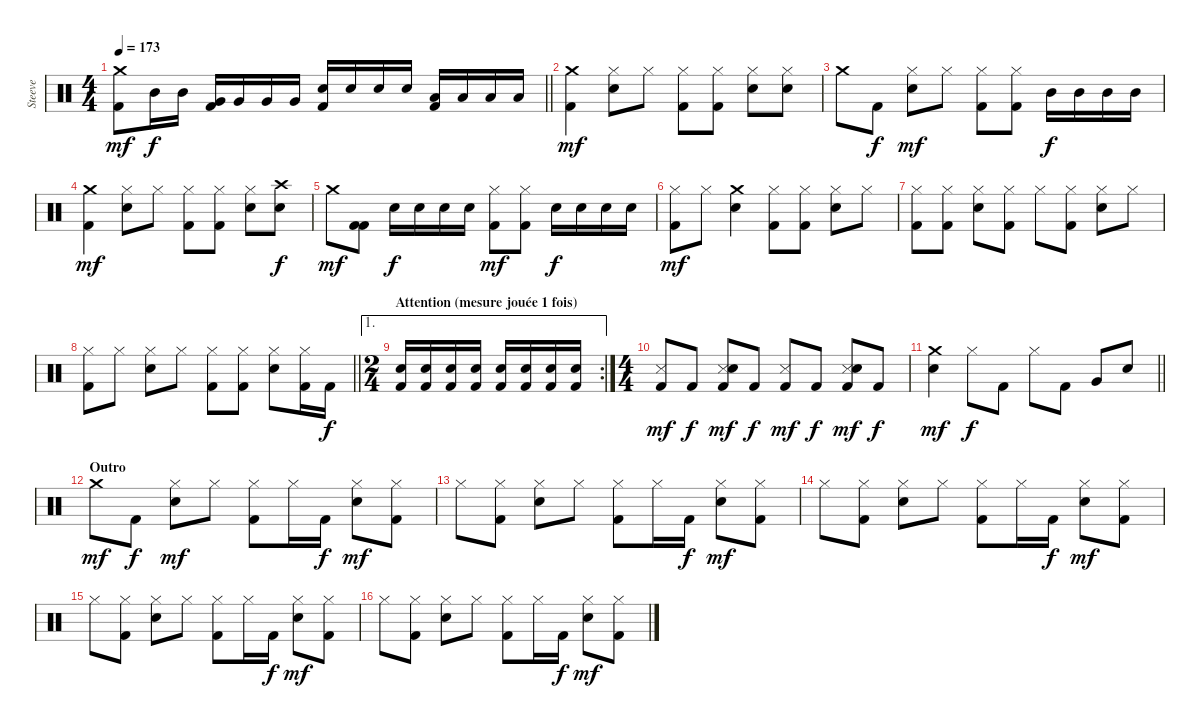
\track ("Steeve" "Steeve") {instrument percussion}
\staff {score}
\articulation defaults
\ts (4 4)
\tempo 173
\clef neutral
\barLineRight lightlight
\ks c
("Crash medium (hit)" "Kick (hit) 2").8{dy mf} "Mid Tom (hit)".16{dy f} "Mid Tom (hit)".16 ("Very Low Tom (hit)" "Kick (hit) 2").16 "Very Low Tom (hit)".16 "Very Low Tom (hit)".16 "Very Low Tom (hit)".16 ("Electric Snare (hit)" "Kick (hit) 2").16 "Electric Snare (hit)".16 "Electric Snare (hit)".16 "Electric Snare (hit)".16 ("Low Floor Tom (hit)" "Kick (hit) 2").16 "Low Floor Tom (hit)".16 "Low Floor Tom (hit)".16 "Low Floor Tom (hit)".16 |
\section ("" "")
("Crash medium (hit)" "Kick (hit) 2").4{dy mf} ("Hi-Hat (closed)" "Electric Snare (hit)").8 "Hi-Hat (closed)".8 ("Hi-Hat (closed)" "Kick (hit) 2").8 ("Hi-Hat (closed)" "Kick (hit) 2").8 ("Hi-Hat (closed)" "Electric Snare (hit)").8 ("Hi-Hat (closed)" "Electric Snare (hit)").8 |
"Crash medium (hit)".8 "Kick (hit) 2".8{dy f} ("Hi-Hat (closed)" "Electric Snare (hit)").8{dy mf} "Hi-Hat (closed)".8 ("Hi-Hat (closed)" "Kick (hit) 2").8 ("Hi-Hat (closed)" "Kick (hit) 2").8 "Mid Tom (hit)".16{dy f} "Mid Tom (hit)".16 "Mid Tom (hit)".16 "Mid Tom (hit)".16 |
("Crash medium (hit)" "Kick (hit) 2").4{dy mf} ("Hi-Hat (closed)" "Electric Snare (hit)").8 "Hi-Hat (closed)".8 ("Hi-Hat (closed)" "Kick (hit) 2").8 ("Hi-Hat (closed)" "Kick (hit) 2").8 ("Hi-Hat (closed)" "Electric Snare (hit)").8 ("Crash high (hit)" "Electric Snare (hit)").8{dy f} |
"Crash medium (hit)".8{dy mf} ("Kick (hit) 2" "Kick (hit) 2").8 "Electric Snare (hit)".16{dy f} "Electric Snare (hit)".16 "Electric Snare (hit)".16 "Electric Snare (hit)".16 ("Hi-Hat (closed)" "Kick (hit) 2").8{dy mf} ("Hi-Hat (closed)" "Kick (hit) 2").8 "Electric Snare (hit)".16{dy f} "Electric Snare (hit)".16 "Electric Snare (hit)".16 "Electric Snare (hit)".16 |
("Hi-Hat (closed)" "Kick (hit) 2").8{dy mf} "Hi-Hat (closed)".8 ("Crash medium (hit)" "Electric Snare (hit)").4 ("Hi-Hat (closed)" "Kick (hit) 2").8 ("Hi-Hat (closed)" "Kick (hit) 2").8 ("Hi-Hat (closed)" "Electric Snare (hit)").8 "Hi-Hat (closed)".8 |
("Hi-Hat (closed)" "Kick (hit) 2").8 ("Hi-Hat (closed)" "Kick (hit) 2").8 ("Hi-Hat (closed)" "Electric Snare (hit)").8 ("Hi-Hat (closed)" "Kick (hit) 2").8 "Hi-Hat (closed)".8 ("Hi-Hat (closed)" "Kick (hit) 2").8 ("Hi-Hat (closed)" "Electric Snare (hit)").8 "Hi-Hat (closed)".8 |
\barLineRight lightlight
("Hi-Hat (closed)" "Kick (hit) 2").8 "Hi-Hat (closed)".8 ("Hi-Hat (closed)" "Electric Snare (hit)").8 "Hi-Hat (closed)".8 ("Hi-Hat (closed)" "Kick (hit) 2").8 ("Hi-Hat (closed)" "Kick (hit) 2").8 ("Hi-Hat (closed)" "Electric Snare (hit)").8 ("Hi-Hat (closed)" "Kick (hit) 2").16 "Kick (hit) 2".16{dy f} |
\ae 1
\rc 2
\ts (2 4)
\section ("" "Attention (mesure jouée 1 fois)")
("Electric Snare (hit)" "Kick (hit) 2").16 ("Electric Snare (hit)" "Kick (hit) 2").16 ("Electric Snare (hit)" "Kick (hit) 2").16 ("Electric Snare (hit)" "Kick (hit) 2").16 ("Electric Snare (hit)" "Kick (hit) 2").16 ("Electric Snare (hit)" "Kick (hit) 2").16 ("Electric Snare (hit)" "Kick (hit) 2").16 ("Electric Snare (hit)" "Kick (hit) 2").16 |
\ts (4 4)
("Metronome (hit)" "Kick (hit) 2").8{dy mf} "Kick (hit) 2".8{dy f} ("Metronome (hit)" "Electric Snare (hit)" "Kick (hit) 2").8{dy mf} "Kick (hit) 2".8{dy f} ("Metronome (hit)" "Kick (hit) 2").8{dy mf} "Kick (hit) 2".8{dy f} ("Metronome (hit)" "Electric Snare (hit)" "Kick (hit) 2").8{dy mf} "Kick (hit) 2".8{dy f} |
\barLineRight lightlight
("Crash medium (hit)" "Electric Snare (hit)").4{dy mf} "Hi-Hat (closed)".8{dy f} "Kick (hit) 2".8 "Hi-Hat (closed)".8 "Kick (hit) 2".8 "Very Low Tom (hit)".8 "Electric Snare (hit)".8 |
\section ("" "Outro")
"Crash medium (hit)".8{dy mf} "Kick (hit) 2".8{dy f} ("Hi-Hat (closed)" "Electric Snare (hit)").8{dy mf} "Hi-Hat (closed)".8 ("Hi-Hat (closed)" "Kick (hit) 2").8 "Hi-Hat (closed)".16 "Kick (hit) 2".16{dy f} ("Hi-Hat (closed)" "Electric Snare (hit)").8{dy mf} ("Hi-Hat (closed)" "Kick (hit) 2").8 |
"Hi-Hat (closed)".8 ("Hi-Hat (closed)" "Kick (hit) 2").8 ("Hi-Hat (closed)" "Electric Snare (hit)").8 "Hi-Hat (closed)".8 ("Hi-Hat (closed)" "Kick (hit) 2").8 "Hi-Hat (closed)".16 "Kick (hit) 2".16{dy f} ("Hi-Hat (closed)" "Electric Snare (hit)").8{dy mf} ("Hi-Hat (closed)" "Kick (hit) 2").8 |
"Hi-Hat (closed)".8 ("Hi-Hat (closed)" "Kick (hit) 2").8 ("Hi-Hat (closed)" "Electric Snare (hit)").8 "Hi-Hat (closed)".8 ("Hi-Hat (closed)" "Kick (hit) 2").8 "Hi-Hat (closed)".16 "Kick (hit) 2".16{dy f} ("Hi-Hat (closed)" "Electric Snare (hit)").8{dy mf} ("Hi-Hat (closed)" "Kick (hit) 2").8 |
"Hi-Hat (closed)".8 ("Hi-Hat (closed)" "Kick (hit) 2").8 ("Hi-Hat (closed)" "Electric Snare (hit)").8 "Hi-Hat (closed)".8 ("Hi-Hat (closed)" "Kick (hit) 2").8 "Hi-Hat (closed)".16 "Kick (hit) 2".16{dy f} ("Hi-Hat (closed)" "Electric Snare (hit)").8{dy mf} ("Hi-Hat (closed)" "Kick (hit) 2").8 |
"Hi-Hat (closed)".8 ("Hi-Hat (closed)" "Kick (hit) 2").8 ("Hi-Hat (closed)" "Electric Snare (hit)").8 "Hi-Hat (closed)".8 ("Hi-Hat (closed)" "Kick (hit) 2").8 "Hi-Hat (closed)".16 "Kick (hit) 2".16{dy f} ("Hi-Hat (closed)" "Electric Snare (hit)").8{dy mf} ("Hi-Hat (closed)" "Kick (hit) 2").8
